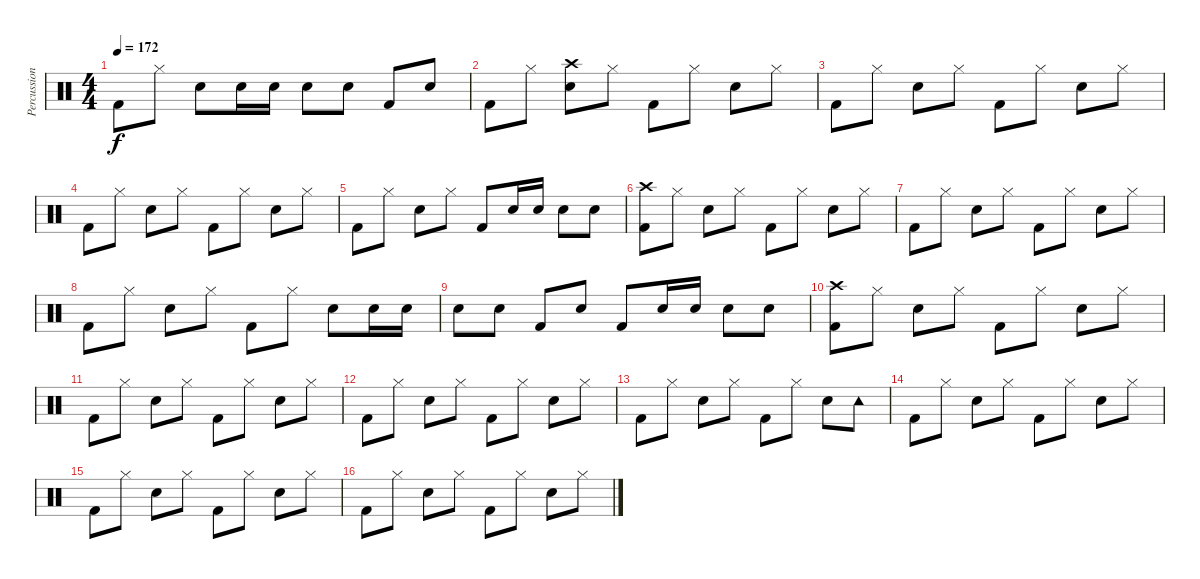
\track ("Percussion" "Percussion") {instrument percussion}
\staff {score}
\articulation defaults
\ts (4 4)
\tempo 172
\clef neutral
\ks c "Kick (hit) 2".8{dy f} "Hi-Hat (closed)".8 "Snare (hit) 2".8 "Snare (hit) 2".16 "Snare (hit) 2".16 "Snare (hit) 2".8 "Snare (hit) 2".8 "Kick (hit) 2".8 "Snare (hit) 2".8
|
"Kick (hit) 2".8 "Hi-Hat (closed)".8 ("Crash high (hit)" "Snare (hit) 2").8 "Hi-Hat (closed)".8 "Kick (hit) 2".8 "Hi-Hat (closed)".8 "Snare (hit) 2".8 "Hi-Hat (closed)".8 |
"Kick (hit) 2".8 "Hi-Hat (closed)".8 "Snare (hit) 2".8 "Hi-Hat (closed)".8 "Kick (hit) 2".8 "Hi-Hat (closed)".8 "Snare (hit) 2".8 "Hi-Hat (closed)".8 |
"Kick (hit) 2".8 "Hi-Hat (closed)".8 "Snare (hit) 2".8 "Hi-Hat (closed)".8 "Kick (hit) 2".8 "Hi-Hat (closed)".8 "Snare (hit) 2".8 "Hi-Hat (closed)".8 |
"Kick (hit) 2".8 "Hi-Hat (closed)".8 "Snare (hit) 2".8 "Hi-Hat (closed)".8 "Kick (hit) 2".8 "Snare (hit) 2".16 "Snare (hit) 2".16 "Snare (hit) 2".8 "Snare (hit) 2".8 |
("Crash high (hit)" "Kick (hit) 2").8 "Hi-Hat (closed)".8 "Snare (hit) 2".8 "Hi-Hat (closed)".8 "Kick (hit) 2".8 "Hi-Hat (closed)".8 "Snare (hit) 2".8 "Hi-Hat (closed)".8 |
"Kick (hit) 2".8 "Hi-Hat (closed)".8 "Snare (hit) 2".8 "Hi-Hat (closed)".8 "Kick (hit) 2".8 "Hi-Hat (closed)".8 "Snare (hit) 2".8 "Hi-Hat (closed)".8 |
"Kick (hit) 2".8 "Hi-Hat (closed)".8 "Snare (hit) 2".8 "Hi-Hat (closed)".8 "Kick (hit) 2".8 "Hi-Hat (closed)".8 "Snare (hit) 2".8 "Snare (hit) 2".16 "Snare (hit) 2".16 |
"Snare (hit) 2".8 "Snare (hit) 2".8 "Kick (hit) 2".8 "Snare (hit) 2".8 "Kick (hit) 2".8 "Snare (hit) 2".16 "Snare (hit) 2".16 "Snare (hit) 2".8 "Snare (hit) 2".8 |
("Crash high (hit)" "Kick (hit) 2").8 "Hi-Hat (closed)".8 "Snare (hit) 2".8 "Hi-Hat (closed)".8 "Kick (hit) 2".8 "Hi-Hat (closed)".8 "Snare (hit) 2".8 "Hi-Hat (closed)".8 |
"Kick (hit) 2".8 "Hi-Hat (closed)".8 "Snare (hit) 2".8 "Hi-Hat (closed)".8 "Kick (hit) 2".8 "Hi-Hat (closed)".8 "Snare (hit) 2".8 "Hi-Hat (closed)".8 |
"Kick (hit) 2".8 "Hi-Hat (closed)".8 "Snare (hit) 2".8 "Hi-Hat (closed)".8 "Kick (hit) 2".8 "Hi-Hat (closed)".8 "Snare (hit) 2".8 "Hi-Hat (closed)".8 |
"Kick (hit) 2".8 "Hi-Hat (closed)".8 "Snare (hit) 2".8 "Hi-Hat (closed)".8 "Kick (hit) 2".8 "Hi-Hat (closed)".8 "Snare (hit) 2".8 "Tambourine (hit)".8 |
"Kick (hit) 2".8 "Hi-Hat (closed)".8 "Snare (hit) 2".8 "Hi-Hat (closed)".8 "Kick (hit) 2".8 "Hi-Hat (closed)".8 "Snare (hit) 2".8 "Hi-Hat (closed)".8 |
"Kick (hit) 2".8 "Hi-Hat (closed)".8 "Snare (hit) 2".8 "Hi-Hat (closed)".8 "Kick (hit) 2".8 "Hi-Hat (closed)".8 "Snare (hit) 2".8 "Hi-Hat (closed)".8 |
"Kick (hit) 2".8 "Hi-Hat (closed)".8 "Snare (hit) 2".8 "Hi-Hat (closed)".8 "Kick (hit) 2".8 "Hi-Hat (closed)".8 "Snare (hit) 2".8 "Hi-Hat (closed)".8
